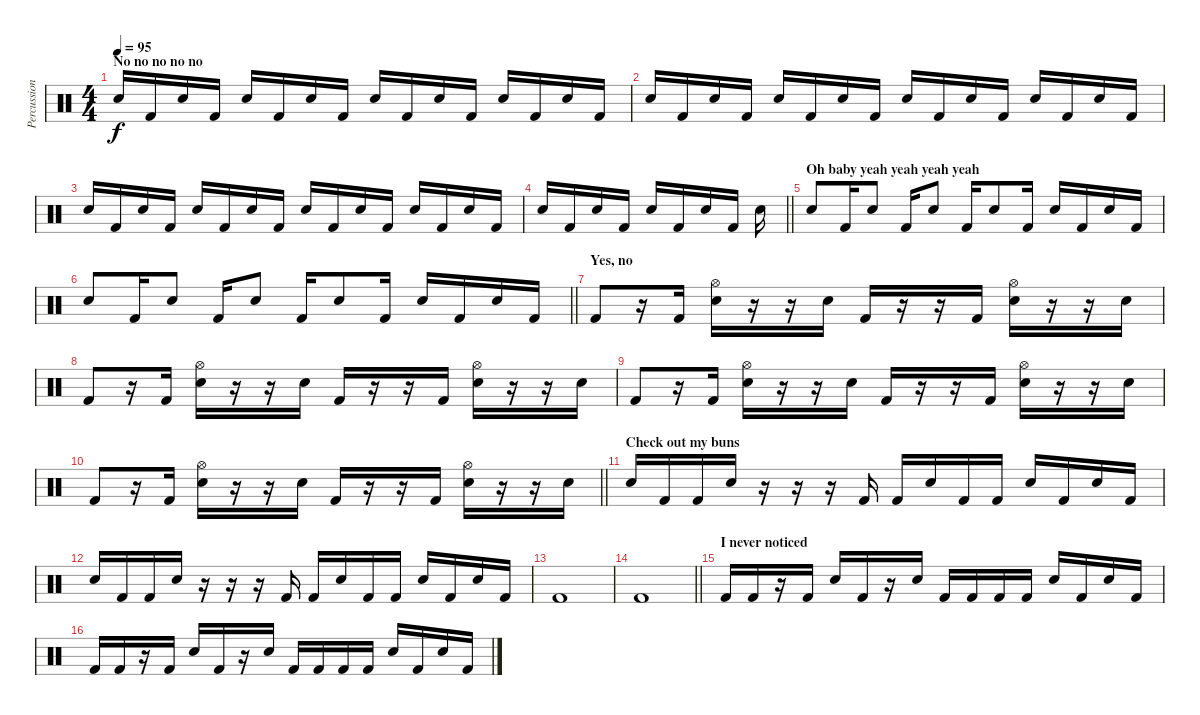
\track ("Percussion" "Percussion") {instrument percussion}
\staff {score}
\articulation defaults
\ts (4 4)
\section ("" "No no no no no")
\tempo 95
\clef neutral
\ks c "Electric Snare (hit)".16{dy f} "Kick (hit) 2".16 "Electric Snare (hit)".16 "Kick (hit) 2".16 "Electric Snare (hit)".16 "Kick (hit) 2".16 "Electric Snare (hit)".16 "Kick (hit) 2".16 "Electric Snare (hit)".16 "Kick (hit) 2".16 "Electric Snare (hit)".16 "Kick (hit) 2".16 "Electric Snare (hit)".16 "Kick (hit) 2".16 "Electric Snare (hit)".16 "Kick (hit) 2".16
|
"Electric Snare (hit)".16 "Kick (hit) 2".16 "Electric Snare (hit)".16 "Kick (hit) 2".16 "Electric Snare (hit)".16 "Kick (hit) 2".16 "Electric Snare (hit)".16 "Kick (hit) 2".16 "Electric Snare (hit)".16 "Kick (hit) 2".16 "Electric Snare (hit)".16 "Kick (hit) 2".16 "Electric Snare (hit)".16 "Kick (hit) 2".16 "Electric Snare (hit)".16 "Kick (hit) 2".16 |
"Electric Snare (hit)".16 "Kick (hit) 2".16 "Electric Snare (hit)".16 "Kick (hit) 2".16 "Electric Snare (hit)".16 "Kick (hit) 2".16 "Electric Snare (hit)".16 "Kick (hit) 2".16 "Electric Snare (hit)".16 "Kick (hit) 2".16 "Electric Snare (hit)".16 "Kick (hit) 2".16 "Electric Snare (hit)".16 "Kick (hit) 2".16 "Electric Snare (hit)".16 "Kick (hit) 2".16 |
\barLineRight lightlight "Electric Snare (hit)".16 "Kick (hit) 2".16 "Electric Snare (hit)".16 "Kick (hit) 2".16 "Electric Snare (hit)".16 "Kick (hit) 2".16 "Electric Snare (hit)".16 "Kick (hit) 2".16 "Electric Snare (hit)".16
|
\section ("" "Oh baby yeah yeah yeah yeah")
"Electric Snare (hit)".8 "Kick (hit) 2".16 "Electric Snare (hit)".8 "Kick (hit) 2".16 "Electric Snare (hit)".8 "Kick (hit) 2".16 "Electric Snare (hit)".8 "Kick (hit) 2".16 "Electric Snare (hit)".16 "Kick (hit) 2".16 "Electric Snare (hit)".16 "Kick (hit) 2".16 |
\barLineRight lightlight "Electric Snare (hit)".8 "Kick (hit) 2".16 "Electric Snare (hit)".8 "Kick (hit) 2".16 "Electric Snare (hit)".8 "Kick (hit) 2".16 "Electric Snare (hit)".8 "Kick (hit) 2".16 "Electric Snare (hit)".16 "Kick (hit) 2".16 "Electric Snare (hit)".16 "Kick (hit) 2".16
|
\section ("" "Yes, no")
"Kick (hit) 2".8 r.16 "Kick (hit) 2".16 ("Electric Snare (hit)" "Hi-Hat (open)").16 r.16 r.16 "Electric Snare (hit)".16 "Kick (hit) 2".16 r.16 r.16 "Kick (hit) 2".16 ("Electric Snare (hit)" "Hi-Hat (open)").16 r.16 r.16 "Electric Snare (hit)".16 |
"Kick (hit) 2".8 r.16 "Kick (hit) 2".16 ("Electric Snare (hit)" "Hi-Hat (open)").16 r.16 r.16 "Electric Snare (hit)".16 "Kick (hit) 2".16 r.16 r.16 "Kick (hit) 2".16 ("Electric Snare (hit)" "Hi-Hat (open)").16 r.16 r.16 "Electric Snare (hit)".16 |
"Kick (hit) 2".8 r.16 "Kick (hit) 2".16 ("Electric Snare (hit)" "Hi-Hat (open)").16 r.16 r.16 "Electric Snare (hit)".16 "Kick (hit) 2".16 r.16 r.16 "Kick (hit) 2".16 ("Electric Snare (hit)" "Hi-Hat (open)").16 r.16 r.16 "Electric Snare (hit)".16 |
\barLineRight lightlight "Kick (hit) 2".8
r.16 "Kick (hit) 2".16 ("Electric Snare (hit)" "Hi-Hat (open)").16 r.16 r.16 "Electric Snare (hit)".16 "Kick (hit) 2".16 r.16 r.16 "Kick (hit) 2".16 ("Electric Snare (hit)" "Hi-Hat (open)").16 r.16 r.16 "Electric Snare (hit)".16 |
\section ("" "Check out my buns")
"Electric Snare (hit)".16 "Kick (hit) 2".16 "Kick (hit) 2".16 "Electric Snare (hit)".16 r.16 r.16 r.16 "Kick (hit) 2".16 "Kick (hit) 2".16 "Electric Snare (hit)".16 "Kick (hit) 2".16 "Kick (hit) 2".16 "Electric Snare (hit)".16 "Kick (hit) 2".16 "Electric Snare (hit)".16 "Kick (hit) 2".16 |
"Electric Snare (hit)".16 "Kick (hit) 2".16 "Kick (hit) 2".16 "Electric Snare (hit)".16 r.16 r.16 r.16 "Kick (hit) 2".16 "Kick (hit) 2".16 "Electric Snare (hit)".16 "Kick (hit) 2".16 "Kick (hit) 2".16 "Electric Snare (hit)".16 "Kick (hit) 2".16 "Electric Snare (hit)".16 "Kick (hit) 2".16 |
"Kick (hit) 2".1 |
\barLineRight lightlight "Kick (hit) 2".1
|
\section ("" "I never noticed")
"Kick (hit) 2".16 "Kick (hit) 2".16 r.16 "Kick (hit) 2".16 "Electric Snare (hit)".16 "Kick (hit) 2".16 r.16 "Electric Snare (hit)".16 "Kick (hit) 2".16 "Kick (hit) 2".16 "Kick (hit) 2".16 "Kick (hit) 2".16 "Electric Snare (hit)".16 "Kick (hit) 2".16 "Electric Snare (hit)".16 "Kick (hit) 2".16 |
"Kick (hit) 2".16 "Kick (hit) 2".16 r.16 "Kick (hit) 2".16 "Electric Snare (hit)".16 "Kick (hit) 2".16 r.16 "Electric Snare (hit)".16 "Kick (hit) 2".16 "Kick (hit) 2".16 "Kick (hit) 2".16 "Kick (hit) 2".16 "Electric Snare (hit)".16 "Kick (hit) 2".16 "Electric Snare (hit)".16 "Kick (hit) 2".16
